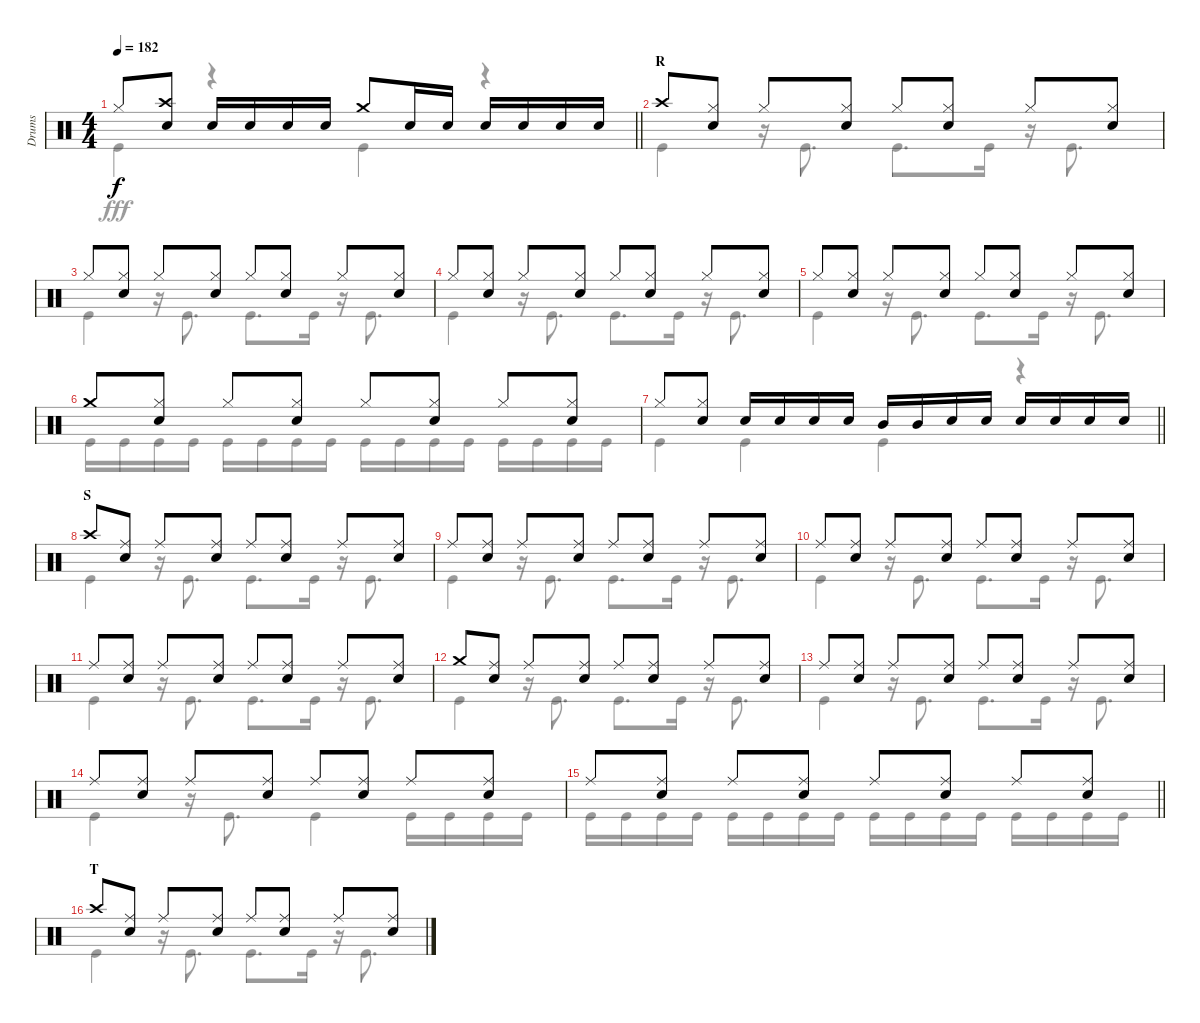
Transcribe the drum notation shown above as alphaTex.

\track ("Drums" "Drums") {instrument percussion}
\staff {score}
\articulation defaults
\voice
\ts (4 4)
\tempo 182
\clef neutral
\barLineRight lightlight
\ks c "Hi-Hat (closed)".8{dy f}
("Crash high (hit)" "Snare (hit) 2").8 "Snare (hit) 2".16 "Snare (hit) 2".16 "Snare (hit) 2".16 "Snare (hit) 2".16 "Crash medium (hit)".8 "Snare (hit) 2".16 "Snare (hit) 2".16 "Snare (hit) 2".16 "Snare (hit) 2".16 "Snare (hit) 2".16 "Snare (hit) 2".16 |
\section ("" "R")
"Crash high (hit)".8 ("Hi-Hat (closed)" "Snare (hit) 2").8 "Hi-Hat (closed)".8 ("Hi-Hat (closed)" "Snare (hit) 2").8 "Hi-Hat (closed)".8 ("Hi-Hat (closed)" "Snare (hit) 2").8 "Hi-Hat (closed)".8 ("Hi-Hat (closed)" "Snare (hit) 2").8 |
"Hi-Hat (closed)".8 ("Hi-Hat (closed)" "Snare (hit) 2").8 "Hi-Hat (closed)".8 ("Hi-Hat (closed)" "Snare (hit) 2").8 "Hi-Hat (closed)".8 ("Hi-Hat (closed)" "Snare (hit) 2").8 "Hi-Hat (closed)".8 ("Hi-Hat (closed)" "Snare (hit) 2").8 |
"Hi-Hat (closed)".8 ("Hi-Hat (closed)" "Snare (hit) 2").8 "Hi-Hat (closed)".8 ("Hi-Hat (closed)" "Snare (hit) 2").8 "Hi-Hat (closed)".8 ("Hi-Hat (closed)" "Snare (hit) 2").8 "Hi-Hat (closed)".8 ("Hi-Hat (closed)" "Snare (hit) 2").8 |
"Hi-Hat (closed)".8 ("Hi-Hat (closed)" "Snare (hit) 2").8 "Hi-Hat (closed)".8 ("Hi-Hat (closed)" "Snare (hit) 2").8 "Hi-Hat (closed)".8 ("Hi-Hat (closed)" "Snare (hit) 2").8 "Hi-Hat (closed)".8 ("Hi-Hat (closed)" "Snare (hit) 2").8 |
"Crash medium (hit)".8 ("Hi-Hat (closed)" "Snare (hit) 2").8 "Hi-Hat (closed)".8 ("Hi-Hat (closed)" "Snare (hit) 2").8 "Hi-Hat (closed)".8 ("Hi-Hat (closed)" "Snare (hit) 2").8 "Hi-Hat (closed)".8 ("Hi-Hat (closed)" "Snare (hit) 2").8 |
\barLineRight lightlight "Hi-Hat (closed)".8
("Hi-Hat (closed)" "Snare (hit) 2").8 "Snare (hit) 2".16 "Snare (hit) 2".16 "Snare (hit) 2".16 "Snare (hit) 2".16 "Mid Tom (hit)".16 "Mid Tom (hit)".16 "Snare (hit) 2".16 "Snare (hit) 2".16 "Snare (hit) 2".16 "Snare (hit) 2".16 "Snare (hit)".16 "Snare (hit)".16 |
\section ("" "S")
"Crash high (hit)".8 ("Ride (middle)" "Snare (hit) 2").8 "Ride (middle)".8 ("Ride (middle)" "Snare (hit) 2").8 "Ride (middle)".8 ("Ride (middle)" "Snare (hit) 2").8 "Ride (middle)".8 ("Ride (middle)" "Snare (hit) 2").8 |
"Ride (middle)".8 ("Ride (middle)" "Snare (hit) 2").8 "Ride (middle)".8 ("Ride (middle)" "Snare (hit) 2").8 "Ride (middle)".8 ("Ride (middle)" "Snare (hit) 2").8 "Ride (middle)".8 ("Ride (middle)" "Snare (hit) 2").8 |
"Ride (middle)".8 ("Ride (middle)" "Snare (hit) 2").8 "Ride (middle)".8 ("Ride (middle)" "Snare (hit) 2").8 "Ride (middle)".8 ("Ride (middle)" "Snare (hit) 2").8 "Ride (middle)".8 ("Ride (middle)" "Snare (hit) 2").8 |
"Ride (middle)".8 ("Ride (middle)" "Snare (hit) 2").8 "Ride (middle)".8 ("Ride (middle)" "Snare (hit) 2").8 "Ride (middle)".8 ("Ride (middle)" "Snare (hit) 2").8 "Ride (middle)".8 ("Ride (middle)" "Snare (hit) 2").8 |
"Crash medium (hit)".8 ("Ride (middle)" "Snare (hit) 2").8 "Ride (middle)".8 ("Ride (middle)" "Snare (hit) 2").8 "Ride (middle)".8 ("Ride (middle)" "Snare (hit) 2").8 "Ride (middle)".8 ("Ride (middle)" "Snare (hit) 2").8 |
"Ride (middle)".8 ("Ride (middle)" "Snare (hit) 2").8 "Ride (middle)".8 ("Ride (middle)" "Snare (hit) 2").8 "Ride (middle)".8 ("Ride (middle)" "Snare (hit) 2").8 "Ride (middle)".8 ("Ride (middle)" "Snare (hit) 2").8 |
"Ride (middle)".8 ("Ride (middle)" "Snare (hit) 2").8 "Ride (middle)".8 ("Ride (middle)" "Snare (hit) 2").8 "Ride (middle)".8 ("Ride (middle)" "Snare (hit) 2").8 "Ride (middle)".8 ("Ride (middle)" "Snare (hit) 2").8 |
\barLineRight lightlight "Ride (middle)".8
("Ride (middle)" "Snare (hit) 2").8 "Ride (middle)".8 ("Ride (middle)" "Snare (hit) 2").8 "Ride (middle)".8 ("Ride (middle)" "Snare (hit) 2").8 "Ride (middle)".8 ("Ride (middle)" "Snare (hit) 2").8 |
\section ("" "T")
"Crash high (hit)".8 ("Ride (middle)" "Snare (hit) 2").8 "Ride (middle)".8 ("Ride (middle)" "Snare (hit) 2").8 "Ride (middle)".8 ("Ride (middle)" "Snare (hit) 2").8 "Ride (middle)".8 ("Ride (middle)" "Snare (hit) 2").8
\voice
\clef neutral
\ottava regular
\simile none
\barLineRight lightlight
\ks c "Kick (hit)".4{dy fff}
r.4 "Kick (hit)".4 r.4 |
"Kick (hit)".4 r.16 "Kick (hit)".8{d} "Kick (hit)".8{d} "Kick (hit)".16 r.16 "Kick (hit)".8{d} |
"Kick (hit)".4 r.16 "Kick (hit)".8{d} "Kick (hit)".8{d} "Kick (hit)".16 r.16 "Kick (hit)".8{d} |
"Kick (hit)".4 r.16 "Kick (hit)".8{d} "Kick (hit)".8{d} "Kick (hit)".16 r.16 "Kick (hit)".8{d} |
"Kick (hit)".4 r.16 "Kick (hit)".8{d} "Kick (hit)".8{d} "Kick (hit)".16 r.16 "Kick (hit)".8{d} |
"Kick (hit)".16 "Kick (hit)".16 "Kick (hit)".16 "Kick (hit)".16 "Kick (hit)".16 "Kick (hit)".16 "Kick (hit)".16 "Kick (hit)".16 "Kick (hit)".16 "Kick (hit)".16 "Kick (hit)".16 "Kick (hit)".16 "Kick (hit)".16 "Kick (hit)".16 "Kick (hit)".16 "Kick (hit)".16 |
\barLineRight lightlight "Kick (hit)".4 "Kick (hit)".4 "Kick (hit)".4
r.4 |
"Kick (hit)".4 r.16 "Kick (hit)".8{d} "Kick (hit)".8{d} "Kick (hit)".16 r.16 "Kick (hit)".8{d} |
"Kick (hit)".4 r.16 "Kick (hit)".8{d} "Kick (hit)".8{d} "Kick (hit)".16 r.16 "Kick (hit)".8{d} |
"Kick (hit)".4 r.16 "Kick (hit)".8{d} "Kick (hit)".8{d} "Kick (hit)".16 r.16 "Kick (hit)".8{d} |
"Kick (hit)".4 r.16 "Kick (hit)".8{d} "Kick (hit)".8{d} "Kick (hit)".16 r.16 "Kick (hit)".8{d} |
"Kick (hit)".4 r.16 "Kick (hit)".8{d} "Kick (hit)".8{d} "Kick (hit)".16 r.16 "Kick (hit)".8{d} |
"Kick (hit)".4 r.16 "Kick (hit)".8{d} "Kick (hit)".8{d} "Kick (hit)".16 r.16 "Kick (hit)".8{d} |
"Kick (hit)".4 r.16 "Kick (hit)".8{d} "Kick (hit)".4 "Kick (hit)".16 "Kick (hit)".16 "Kick (hit)".16 "Kick (hit)".16 |
\barLineRight lightlight "Kick (hit)".16 "Kick (hit)".16 "Kick (hit)".16 "Kick (hit)".16 "Kick (hit)".16 "Kick (hit)".16 "Kick (hit)".16 "Kick (hit)".16 "Kick (hit)".16 "Kick (hit)".16 "Kick (hit)".16 "Kick (hit)".16 "Kick (hit)".16 "Kick (hit)".16 "Kick (hit)".16 "Kick (hit)".16
|
"Kick (hit)".4 r.16 "Kick (hit)".8{d} "Kick (hit)".8{d} "Kick (hit)".16 r.16 "Kick (hit)".8{d}
